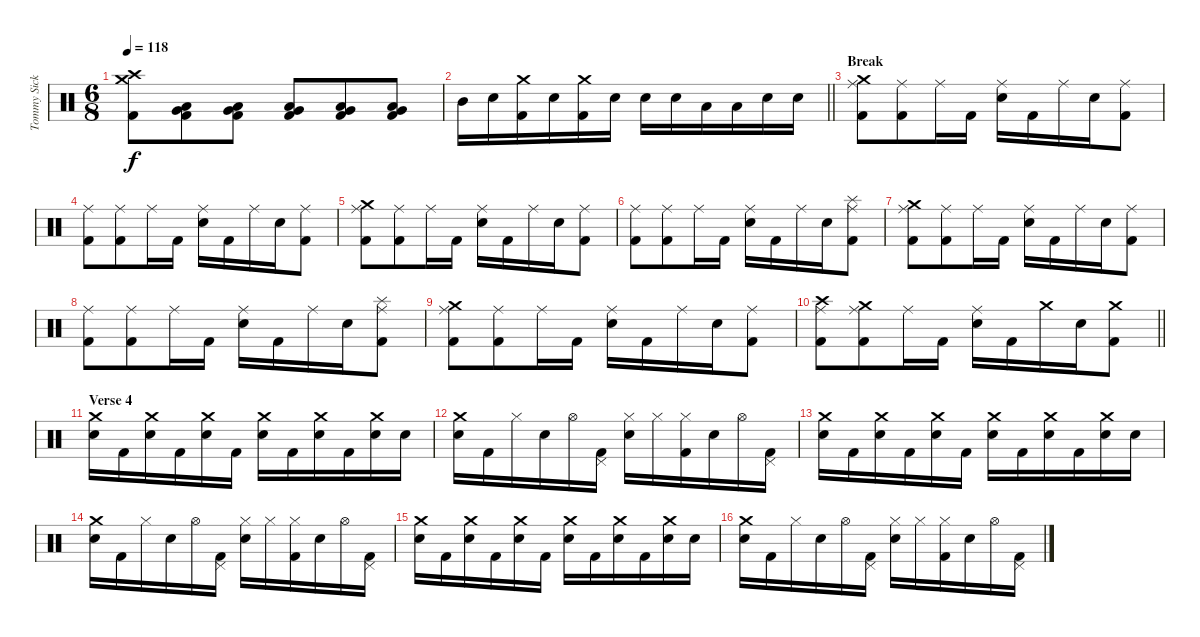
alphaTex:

\track ("Tommy Sickles" "Tommy Sick") {instrument percussion}
\staff {score}
\articulation defaults
\ts (6 8)
\tempo 118
\clef neutral
\ks c
("Crash high (hit)" "Crash medium (hit)" "Kick (hit) 2").8{dy f} ("Low Tom (hit)" "Very Low Tom (hit)" "Kick (hit) 2").8 ("Low Tom (hit)" "Very Low Tom (hit)" "Kick (hit) 2").8 ("Low Tom (hit)" "Very Low Tom (hit)" "Kick (hit) 2").8 ("Low Tom (hit)" "Very Low Tom (hit)" "Kick (hit) 2").8 ("Low Tom (hit)" "Very Low Tom (hit)" "Kick (hit) 2").8 |
\barLineRight lightlight "Mid Tom (hit)".16 "Electric Snare (hit)".16
("Crash medium (hit)" "Kick (hit) 2").16 "Electric Snare (hit)".16 ("Crash medium (hit)" "Kick (hit) 2").16 "Electric Snare (hit)".16 "Electric Snare (hit)".16 "Electric Snare (hit)".16 "Low Tom (hit)".16 "Low Tom (hit)".16 "Electric Snare (hit)".16 "Electric Snare (hit)".16 |
\section ("" "Break")
("Crash medium (hit)" "Ride (middle)" "Kick (hit) 2").8 ("Ride (middle)" "Kick (hit) 2").8 "Ride (middle)".16 "Kick (hit) 2".16 ("Ride (middle)" "Electric Snare (hit)").16 "Kick (hit) 2".16 "Ride (middle)".16 "Electric Snare (hit)".16 ("Ride (middle)" "Kick (hit) 2").8 |
("Ride (middle)" "Kick (hit) 2").8 ("Ride (middle)" "Kick (hit) 2").8 "Ride (middle)".16 "Kick (hit) 2".16 ("Ride (middle)" "Electric Snare (hit)").16 "Kick (hit) 2".16 "Ride (middle)".16 "Electric Snare (hit)".16 ("Ride (middle)" "Kick (hit) 2").8 |
("Crash medium (hit)" "Ride (middle)" "Kick (hit) 2").8 ("Ride (middle)" "Kick (hit) 2").8 "Ride (middle)".16 "Kick (hit) 2".16 ("Ride (middle)" "Electric Snare (hit)").16 "Kick (hit) 2".16 "Ride (middle)".16 "Electric Snare (hit)".16 ("Ride (middle)" "Kick (hit) 2").8 |
("Ride (middle)" "Kick (hit) 2").8 ("Ride (middle)" "Kick (hit) 2").8 "Ride (middle)".16 "Kick (hit) 2".16 ("Ride (middle)" "Electric Snare (hit)").16 "Kick (hit) 2".16 "Ride (middle)".16 "Electric Snare (hit)".16 ("Splash (hit)" "Ride (middle)" "Kick (hit) 2").8 |
("Crash medium (hit)" "Ride (middle)" "Kick (hit) 2").8 ("Ride (middle)" "Kick (hit) 2").8 "Ride (middle)".16 "Kick (hit) 2".16 ("Ride (middle)" "Electric Snare (hit)").16 "Kick (hit) 2".16 "Ride (middle)".16 "Electric Snare (hit)".16 ("Ride (middle)" "Kick (hit) 2").8 |
("Ride (middle)" "Kick (hit) 2").8 ("Ride (middle)" "Kick (hit) 2").8 "Ride (middle)".16 "Kick (hit) 2".16 ("Ride (middle)" "Electric Snare (hit)").16 "Kick (hit) 2".16 "Ride (middle)".16 "Electric Snare (hit)".16 ("Splash (hit)" "Ride (middle)" "Kick (hit) 2").8 |
("Crash medium (hit)" "Ride (middle)" "Kick (hit) 2").8 ("Ride (middle)" "Kick (hit) 2").8 "Ride (middle)".16 "Kick (hit) 2".16 ("Ride (middle)" "Electric Snare (hit)").16 "Kick (hit) 2".16 "Ride (middle)".16 "Electric Snare (hit)".16 ("Ride (middle)" "Kick (hit) 2").8 |
\barLineRight lightlight
("Crash high (hit)" "Ride (middle)" "Kick (hit) 2").8 ("Crash medium (hit)" "Ride (middle)" "Kick (hit) 2").8 "Ride (middle)".16 "Kick (hit) 2".16 ("Ride (middle)" "Electric Snare (hit)").16 "Kick (hit) 2".16 "Crash medium (hit)".16 "Electric Snare (hit)".16 ("Crash medium (hit)" "Kick (hit) 2").8 |
\section ("" "Verse 4")
("Crash medium (hit)" "Electric Snare (hit)").16 "Kick (hit) 2".16 ("Crash medium (hit)" "Electric Snare (hit)").16 "Kick (hit) 2".16 ("Crash medium (hit)" "Electric Snare (hit)").16 "Kick (hit) 2".16 ("Crash medium (hit)" "Electric Snare (hit)").16 "Kick (hit) 2".16 ("Crash medium (hit)" "Electric Snare (hit)").16 "Kick (hit) 2".16 ("Crash medium (hit)" "Electric Snare (hit)").16 "Electric Snare (hit)".16 |
("Crash medium (hit)" "Electric Snare (hit)").16 "Kick (hit) 2".16 "Hi-Hat (closed)".16 "Electric Snare (hit)".16 "Hi-Hat (open)".16 ("Pedal Hi-Hat (hit)" "Kick (hit) 2").16 ("Hi-Hat (closed)" "Electric Snare (hit)").16 "Hi-Hat (closed)".16 ("Hi-Hat (closed)" "Kick (hit) 2").16 "Electric Snare (hit)".16 "Hi-Hat (open)".16 ("Pedal Hi-Hat (hit)" "Kick (hit) 2").16 |
("Crash medium (hit)" "Electric Snare (hit)").16 "Kick (hit) 2".16 ("Crash medium (hit)" "Electric Snare (hit)").16 "Kick (hit) 2".16 ("Crash medium (hit)" "Electric Snare (hit)").16 "Kick (hit) 2".16 ("Crash medium (hit)" "Electric Snare (hit)").16 "Kick (hit) 2".16 ("Crash medium (hit)" "Electric Snare (hit)").16 "Kick (hit) 2".16 ("Crash medium (hit)" "Electric Snare (hit)").16 "Electric Snare (hit)".16 |
("Crash medium (hit)" "Electric Snare (hit)").16 "Kick (hit) 2".16 "Hi-Hat (closed)".16 "Electric Snare (hit)".16 "Hi-Hat (open)".16 ("Pedal Hi-Hat (hit)" "Kick (hit) 2").16 ("Hi-Hat (closed)" "Electric Snare (hit)").16 "Hi-Hat (closed)".16 ("Hi-Hat (closed)" "Kick (hit) 2").16 "Electric Snare (hit)".16 "Hi-Hat (open)".16 ("Pedal Hi-Hat (hit)" "Kick (hit) 2").16 |
("Crash medium (hit)" "Electric Snare (hit)").16 "Kick (hit) 2".16 ("Crash medium (hit)" "Electric Snare (hit)").16 "Kick (hit) 2".16 ("Crash medium (hit)" "Electric Snare (hit)").16 "Kick (hit) 2".16 ("Crash medium (hit)" "Electric Snare (hit)").16 "Kick (hit) 2".16 ("Crash medium (hit)" "Electric Snare (hit)").16 "Kick (hit) 2".16 ("Crash medium (hit)" "Electric Snare (hit)").16 "Electric Snare (hit)".16 |
("Crash medium (hit)" "Electric Snare (hit)").16 "Kick (hit) 2".16 "Hi-Hat (closed)".16 "Electric Snare (hit)".16 "Hi-Hat (open)".16 ("Pedal Hi-Hat (hit)" "Kick (hit) 2").16 ("Hi-Hat (closed)" "Electric Snare (hit)").16 "Hi-Hat (closed)".16 ("Hi-Hat (closed)" "Kick (hit) 2").16 "Electric Snare (hit)".16 "Hi-Hat (open)".16 ("Pedal Hi-Hat (hit)" "Kick (hit) 2").16
